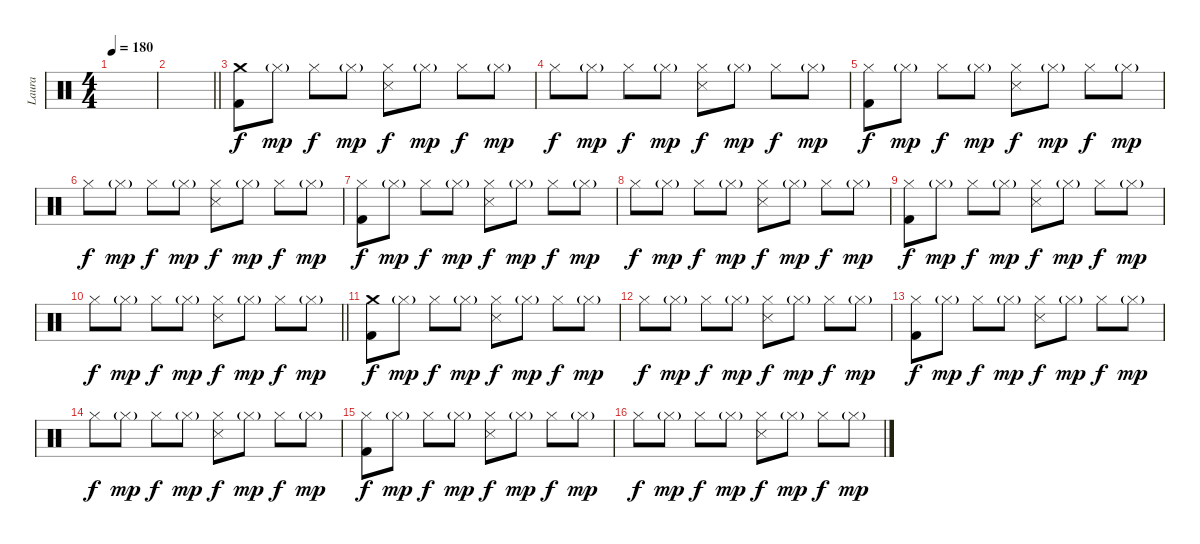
\track ("Laura" "Laura") {instrument percussion}
\staff {score}
\articulation defaults
\ts (4 4)
\tempo 180
\clef neutral
\ks c
|
\barLineRight lightlight
|
\section ("" "")
("Crash medium (hit)" "Kick (hit) 2").8 "Hi-Hat (closed)"{g}.8{dy mp} "Hi-Hat (closed)".8{dy f} "Hi-Hat (closed)"{g}.8{dy mp} ("Hi-Hat (closed)" "Snare (side stick) 3").8{dy f} "Hi-Hat (closed)"{g}.8{dy mp} "Hi-Hat (closed)".8{dy f} "Hi-Hat (closed)"{g}.8{dy mp} |
"Hi-Hat (closed)".8{dy f} "Hi-Hat (closed)"{g}.8{dy mp} "Hi-Hat (closed)".8{dy f} "Hi-Hat (closed)"{g}.8{dy mp} ("Hi-Hat (closed)" "Snare (side stick) 3").8{dy f} "Hi-Hat (closed)"{g}.8{dy mp} "Hi-Hat (closed)".8{dy f} "Hi-Hat (closed)"{g}.8{dy mp} |
("Hi-Hat (closed)" "Kick (hit) 2").8{dy f} "Hi-Hat (closed)"{g}.8{dy mp} "Hi-Hat (closed)".8{dy f} "Hi-Hat (closed)"{g}.8{dy mp} ("Hi-Hat (closed)" "Snare (side stick) 3").8{dy f} "Hi-Hat (closed)"{g}.8{dy mp} "Hi-Hat (closed)".8{dy f} "Hi-Hat (closed)"{g}.8{dy mp} |
"Hi-Hat (closed)".8{dy f} "Hi-Hat (closed)"{g}.8{dy mp} "Hi-Hat (closed)".8{dy f} "Hi-Hat (closed)"{g}.8{dy mp} ("Hi-Hat (closed)" "Snare (side stick) 3").8{dy f} "Hi-Hat (closed)"{g}.8{dy mp} "Hi-Hat (closed)".8{dy f} "Hi-Hat (closed)"{g}.8{dy mp} |
("Hi-Hat (closed)" "Kick (hit) 2").8{dy f} "Hi-Hat (closed)"{g}.8{dy mp} "Hi-Hat (closed)".8{dy f} "Hi-Hat (closed)"{g}.8{dy mp} ("Hi-Hat (closed)" "Snare (side stick) 3").8{dy f} "Hi-Hat (closed)"{g}.8{dy mp} "Hi-Hat (closed)".8{dy f} "Hi-Hat (closed)"{g}.8{dy mp} |
"Hi-Hat (closed)".8{dy f} "Hi-Hat (closed)"{g}.8{dy mp} "Hi-Hat (closed)".8{dy f} "Hi-Hat (closed)"{g}.8{dy mp} ("Hi-Hat (closed)" "Snare (side stick) 3").8{dy f} "Hi-Hat (closed)"{g}.8{dy mp} "Hi-Hat (closed)".8{dy f} "Hi-Hat (closed)"{g}.8{dy mp} |
("Hi-Hat (closed)" "Kick (hit) 2").8{dy f} "Hi-Hat (closed)"{g}.8{dy mp} "Hi-Hat (closed)".8{dy f} "Hi-Hat (closed)"{g}.8{dy mp} ("Hi-Hat (closed)" "Snare (side stick) 3").8{dy f} "Hi-Hat (closed)"{g}.8{dy mp} "Hi-Hat (closed)".8{dy f} "Hi-Hat (closed)"{g}.8{dy mp} |
\barLineRight lightlight "Hi-Hat (closed)".8{dy f} "Hi-Hat (closed)"{g}.8{dy mp} "Hi-Hat (closed)".8{dy f} "Hi-Hat (closed)"{g}.8{dy mp}
("Hi-Hat (closed)" "Snare (side stick) 3").8{dy f} "Hi-Hat (closed)"{g}.8{dy mp} "Hi-Hat (closed)".8{dy f} "Hi-Hat (closed)"{g}.8{dy mp} |
("Crash medium (hit)" "Kick (hit) 2").8{dy f} "Hi-Hat (closed)"{g}.8{dy mp} "Hi-Hat (closed)".8{dy f} "Hi-Hat (closed)"{g}.8{dy mp} ("Hi-Hat (closed)" "Snare (side stick) 3").8{dy f} "Hi-Hat (closed)"{g}.8{dy mp} "Hi-Hat (closed)".8{dy f} "Hi-Hat (closed)"{g}.8{dy mp} |
"Hi-Hat (closed)".8{dy f} "Hi-Hat (closed)"{g}.8{dy mp} "Hi-Hat (closed)".8{dy f} "Hi-Hat (closed)"{g}.8{dy mp} ("Hi-Hat (closed)" "Snare (side stick) 3").8{dy f} "Hi-Hat (closed)"{g}.8{dy mp} "Hi-Hat (closed)".8{dy f} "Hi-Hat (closed)"{g}.8{dy mp} |
("Hi-Hat (closed)" "Kick (hit) 2").8{dy f} "Hi-Hat (closed)"{g}.8{dy mp} "Hi-Hat (closed)".8{dy f} "Hi-Hat (closed)"{g}.8{dy mp} ("Hi-Hat (closed)" "Snare (side stick) 3").8{dy f} "Hi-Hat (closed)"{g}.8{dy mp} "Hi-Hat (closed)".8{dy f} "Hi-Hat (closed)"{g}.8{dy mp} |
"Hi-Hat (closed)".8{dy f} "Hi-Hat (closed)"{g}.8{dy mp} "Hi-Hat (closed)".8{dy f} "Hi-Hat (closed)"{g}.8{dy mp} ("Hi-Hat (closed)" "Snare (side stick) 3").8{dy f} "Hi-Hat (closed)"{g}.8{dy mp} "Hi-Hat (closed)".8{dy f} "Hi-Hat (closed)"{g}.8{dy mp} |
("Hi-Hat (closed)" "Kick (hit) 2").8{dy f} "Hi-Hat (closed)"{g}.8{dy mp} "Hi-Hat (closed)".8{dy f} "Hi-Hat (closed)"{g}.8{dy mp} ("Hi-Hat (closed)" "Snare (side stick) 3").8{dy f} "Hi-Hat (closed)"{g}.8{dy mp} "Hi-Hat (closed)".8{dy f} "Hi-Hat (closed)"{g}.8{dy mp} |
"Hi-Hat (closed)".8{dy f} "Hi-Hat (closed)"{g}.8{dy mp} "Hi-Hat (closed)".8{dy f} "Hi-Hat (closed)"{g}.8{dy mp} ("Hi-Hat (closed)" "Snare (side stick) 3").8{dy f} "Hi-Hat (closed)"{g}.8{dy mp} "Hi-Hat (closed)".8{dy f} "Hi-Hat (closed)"{g}.8{dy mp}
